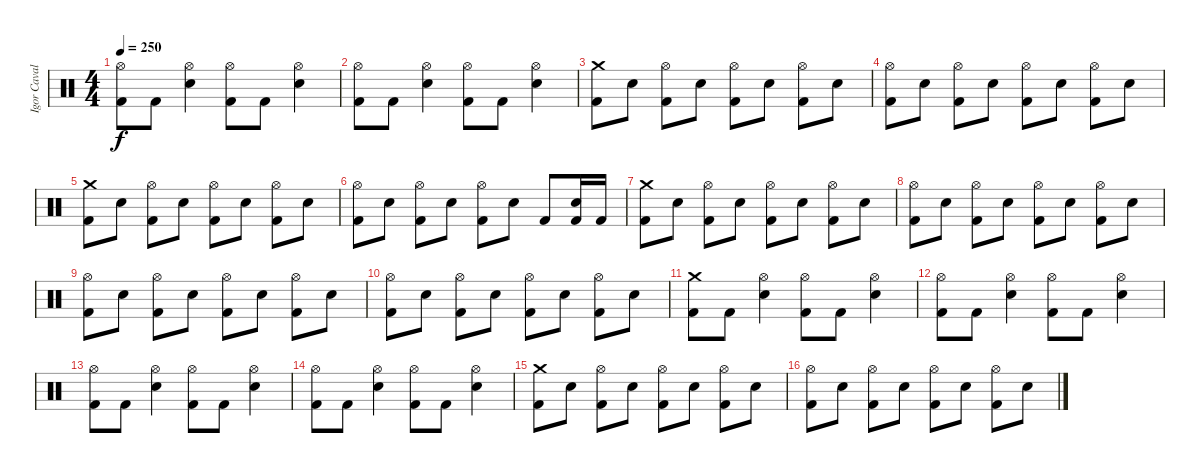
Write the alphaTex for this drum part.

\track ("Igor Cavalera" "Igor Caval") {instrument percussion}
\staff {score}
\articulation defaults
\ts (4 4)
\tempo 250
\clef neutral
\ks c
("Kick (hit) 2" "Hi-Hat (open)").8{dy f} "Kick (hit) 2".8 ("Electric Snare (hit)" "Hi-Hat (open)").4 ("Kick (hit) 2" "Hi-Hat (open)").8 "Kick (hit) 2".8 ("Electric Snare (hit)" "Hi-Hat (open)").4 |
("Kick (hit) 2" "Hi-Hat (open)").8 "Kick (hit) 2".8 ("Electric Snare (hit)" "Hi-Hat (open)").4 ("Kick (hit) 2" "Hi-Hat (open)").8 "Kick (hit) 2".8 ("Electric Snare (hit)" "Hi-Hat (open)").4 |
("Crash medium (hit)" "Kick (hit) 2").8 "Electric Snare (hit)".8 ("Hi-Hat (open)" "Kick (hit) 2").8 "Electric Snare (hit)".8 ("Hi-Hat (open)" "Kick (hit) 2").8 "Electric Snare (hit)".8 ("Hi-Hat (open)" "Kick (hit) 2").8 "Electric Snare (hit)".8 |
("Hi-Hat (open)" "Kick (hit) 2").8 "Electric Snare (hit)".8 ("Hi-Hat (open)" "Kick (hit) 2").8 "Electric Snare (hit)".8 ("Hi-Hat (open)" "Kick (hit) 2").8 "Electric Snare (hit)".8 ("Hi-Hat (open)" "Kick (hit) 2").8 "Electric Snare (hit)".8 |
("Crash medium (hit)" "Kick (hit) 2").8 "Electric Snare (hit)".8 ("Hi-Hat (open)" "Kick (hit) 2").8 "Electric Snare (hit)".8 ("Hi-Hat (open)" "Kick (hit) 2").8 "Electric Snare (hit)".8 ("Hi-Hat (open)" "Kick (hit) 2").8 "Electric Snare (hit)".8 |
("Hi-Hat (open)" "Kick (hit) 2").8 "Electric Snare (hit)".8 ("Hi-Hat (open)" "Kick (hit) 2").8 "Electric Snare (hit)".8 ("Hi-Hat (open)" "Kick (hit) 2").8 "Electric Snare (hit)".8 "Kick (hit) 2".8 ("Kick (hit) 2" "Electric Snare (hit)").16 "Kick (hit) 2".16 |
("Crash medium (hit)" "Kick (hit) 2").8 "Electric Snare (hit)".8 ("Hi-Hat (open)" "Kick (hit) 2").8 "Electric Snare (hit)".8 ("Hi-Hat (open)" "Kick (hit) 2").8 "Electric Snare (hit)".8 ("Hi-Hat (open)" "Kick (hit) 2").8 "Electric Snare (hit)".8 |
("Hi-Hat (open)" "Kick (hit) 2").8 "Electric Snare (hit)".8 ("Hi-Hat (open)" "Kick (hit) 2").8 "Electric Snare (hit)".8 ("Hi-Hat (open)" "Kick (hit) 2").8 "Electric Snare (hit)".8 ("Hi-Hat (open)" "Kick (hit) 2").8 "Electric Snare (hit)".8 |
("Hi-Hat (open)" "Kick (hit) 2").8 "Electric Snare (hit)".8 ("Hi-Hat (open)" "Kick (hit) 2").8 "Electric Snare (hit)".8 ("Hi-Hat (open)" "Kick (hit) 2").8 "Electric Snare (hit)".8 ("Hi-Hat (open)" "Kick (hit) 2").8 "Electric Snare (hit)".8 |
("Hi-Hat (open)" "Kick (hit) 2").8 "Electric Snare (hit)".8 ("Hi-Hat (open)" "Kick (hit) 2").8 "Electric Snare (hit)".8 ("Hi-Hat (open)" "Kick (hit) 2").8 "Electric Snare (hit)".8 ("Hi-Hat (open)" "Kick (hit) 2").8 "Electric Snare (hit)".8 |
("Kick (hit) 2" "Crash medium (hit)").8 "Kick (hit) 2".8 ("Electric Snare (hit)" "Hi-Hat (open)").4 ("Kick (hit) 2" "Hi-Hat (open)").8 "Kick (hit) 2".8 ("Electric Snare (hit)" "Hi-Hat (open)").4 |
("Kick (hit) 2" "Hi-Hat (open)").8 "Kick (hit) 2".8 ("Electric Snare (hit)" "Hi-Hat (open)").4 ("Kick (hit) 2" "Hi-Hat (open)").8 "Kick (hit) 2".8 ("Electric Snare (hit)" "Hi-Hat (open)").4 |
("Kick (hit) 2" "Hi-Hat (open)").8 "Kick (hit) 2".8 ("Electric Snare (hit)" "Hi-Hat (open)").4 ("Kick (hit) 2" "Hi-Hat (open)").8 "Kick (hit) 2".8 ("Electric Snare (hit)" "Hi-Hat (open)").4 |
("Kick (hit) 2" "Hi-Hat (open)").8 "Kick (hit) 2".8 ("Electric Snare (hit)" "Hi-Hat (open)").4 ("Kick (hit) 2" "Hi-Hat (open)").8 "Kick (hit) 2".8 ("Electric Snare (hit)" "Hi-Hat (open)").4 |
("Crash medium (hit)" "Kick (hit) 2").8 "Electric Snare (hit)".8 ("Hi-Hat (open)" "Kick (hit) 2").8 "Electric Snare (hit)".8 ("Hi-Hat (open)" "Kick (hit) 2").8 "Electric Snare (hit)".8 ("Hi-Hat (open)" "Kick (hit) 2").8 "Electric Snare (hit)".8 |
("Hi-Hat (open)" "Kick (hit) 2").8 "Electric Snare (hit)".8 ("Hi-Hat (open)" "Kick (hit) 2").8 "Electric Snare (hit)".8 ("Hi-Hat (open)" "Kick (hit) 2").8 "Electric Snare (hit)".8 ("Hi-Hat (open)" "Kick (hit) 2").8 "Electric Snare (hit)".8
